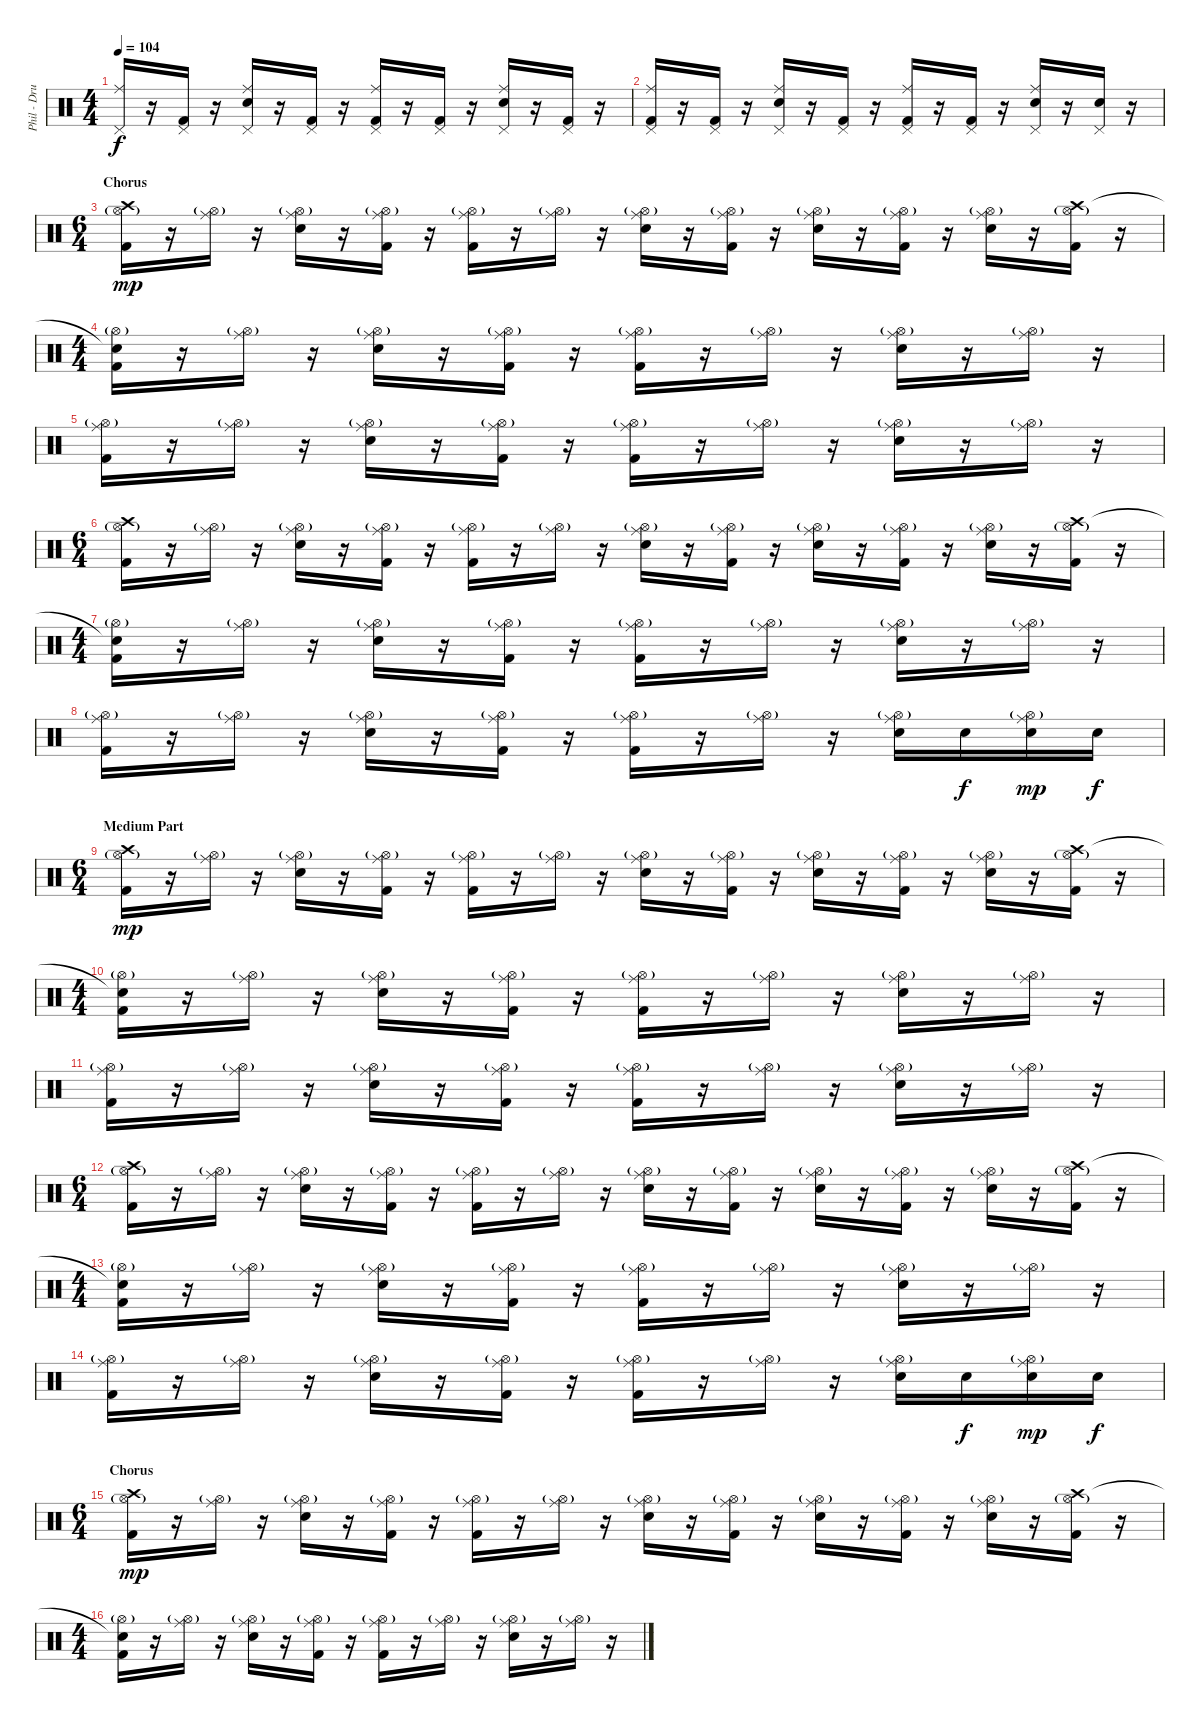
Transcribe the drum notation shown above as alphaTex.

\track ("Phil - Drums" "Phil - Dru") {instrument percussion}
\staff {score}
\articulation defaults
\ts (4 4)
\tempo 104
\clef neutral
\ks c
("Ride (middle)" "Pedal Hi-Hat (hit)").16{dy f} r.16 ("Kick (hit) 2" "Pedal Hi-Hat (hit)").16 r.16 ("Ride (middle)" "Snare (hit) 2" "Pedal Hi-Hat (hit)").16 r.16 ("Kick (hit) 2" "Pedal Hi-Hat (hit)").16 r.16 ("Ride (middle)" "Kick (hit) 2" "Pedal Hi-Hat (hit)").16 r.16 ("Kick (hit) 2" "Pedal Hi-Hat (hit)").16 r.16 ("Ride (middle)" "Snare (hit) 2" "Pedal Hi-Hat (hit)").16 r.16 ("Kick (hit) 2" "Pedal Hi-Hat (hit)").16 r.16 |
("Ride (middle)" "Kick (hit) 2" "Pedal Hi-Hat (hit)").16 r.16 ("Kick (hit) 2" "Pedal Hi-Hat (hit)").16 r.16 ("Ride (middle)" "Snare (hit) 2" "Pedal Hi-Hat (hit)").16 r.16 ("Kick (hit) 2" "Pedal Hi-Hat (hit)").16 r.16 ("Ride (middle)" "Kick (hit) 2" "Pedal Hi-Hat (hit)").16 r.16 ("Kick (hit) 2" "Pedal Hi-Hat (hit)").16 r.16 ("Ride (middle)" "Snare (hit) 2" "Pedal Hi-Hat (hit)").16 r.16 ("Snare (hit) 2" "Pedal Hi-Hat (hit)").16 r.16 |
\ts (6 4)
\section ("" "Chorus")
("Crash high (hit)" "Kick (hit) 2" "Hi-Hat (open)"{g}).16{dy mp} r.16 ("Ride (middle)" "Hi-Hat (open)"{g}).16 r.16 ("Ride (middle)" "Electric Snare (hit)" "Hi-Hat (open)"{g}).16 r.16 ("Ride (middle)" "Kick (hit) 2" "Hi-Hat (open)"{g}).16 r.16 ("Ride (middle)" "Kick (hit) 2" "Hi-Hat (open)"{g}).16 r.16 ("Ride (middle)" "Hi-Hat (open)"{g}).16 r.16 ("Ride (middle)" "Electric Snare (hit)" "Hi-Hat (open)"{g}).16 r.16 ("Ride (middle)" "Kick (hit) 2" "Hi-Hat (open)"{g}).16 r.16 ("Ride (middle)" "Electric Snare (hit)" "Hi-Hat (open)"{g}).16 r.16 ("Ride (middle)" "Kick (hit) 2" "Hi-Hat (open)"{g}).16 r.16 ("Ride (middle)" "Electric Snare (hit)" "Hi-Hat (open)"{g}).16 r.16 ("Crash high (hit)" "Kick (hit) 2" "Hi-Hat (open)"{g}).16 r.16 |
\ts (4 4)
("Snare (hit)"{t} "Kick (hit) 2" "Hi-Hat (open)"{g}).16 r.16 ("Ride (middle)" "Hi-Hat (open)"{g}).16 r.16 ("Ride (middle)" "Electric Snare (hit)" "Hi-Hat (open)"{g}).16 r.16 ("Ride (middle)" "Kick (hit) 2" "Hi-Hat (open)"{g}).16 r.16 ("Ride (middle)" "Kick (hit) 2" "Hi-Hat (open)"{g}).16 r.16 ("Ride (middle)" "Hi-Hat (open)"{g}).16 r.16 ("Ride (middle)" "Electric Snare (hit)" "Hi-Hat (open)"{g}).16 r.16 ("Ride (middle)" "Hi-Hat (open)"{g}).16 r.16 |
("Ride (middle)" "Kick (hit) 2" "Hi-Hat (open)"{g}).16 r.16 ("Ride (middle)" "Hi-Hat (open)"{g}).16 r.16 ("Ride (middle)" "Electric Snare (hit)" "Hi-Hat (open)"{g}).16 r.16 ("Ride (middle)" "Kick (hit) 2" "Hi-Hat (open)"{g}).16 r.16 ("Ride (middle)" "Kick (hit) 2" "Hi-Hat (open)"{g}).16 r.16 ("Ride (middle)" "Hi-Hat (open)"{g}).16 r.16 ("Ride (middle)" "Electric Snare (hit)" "Hi-Hat (open)"{g}).16 r.16 ("Ride (middle)" "Hi-Hat (open)"{g}).16 r.16 |
\ts (6 4)
("Crash high (hit)" "Kick (hit) 2" "Hi-Hat (open)"{g}).16 r.16 ("Ride (middle)" "Hi-Hat (open)"{g}).16 r.16 ("Ride (middle)" "Electric Snare (hit)" "Hi-Hat (open)"{g}).16 r.16 ("Ride (middle)" "Kick (hit) 2" "Hi-Hat (open)"{g}).16 r.16 ("Ride (middle)" "Kick (hit) 2" "Hi-Hat (open)"{g}).16 r.16 ("Ride (middle)" "Hi-Hat (open)"{g}).16 r.16 ("Ride (middle)" "Electric Snare (hit)" "Hi-Hat (open)"{g}).16 r.16 ("Ride (middle)" "Kick (hit) 2" "Hi-Hat (open)"{g}).16 r.16 ("Ride (middle)" "Electric Snare (hit)" "Hi-Hat (open)"{g}).16 r.16 ("Ride (middle)" "Kick (hit) 2" "Hi-Hat (open)"{g}).16 r.16 ("Ride (middle)" "Electric Snare (hit)" "Hi-Hat (open)"{g}).16 r.16 ("Crash high (hit)" "Kick (hit) 2" "Hi-Hat (open)"{g}).16 r.16 |
\ts (4 4)
("Snare (hit)"{t} "Kick (hit) 2" "Hi-Hat (open)"{g}).16 r.16 ("Ride (middle)" "Hi-Hat (open)"{g}).16 r.16 ("Ride (middle)" "Electric Snare (hit)" "Hi-Hat (open)"{g}).16 r.16 ("Ride (middle)" "Kick (hit) 2" "Hi-Hat (open)"{g}).16 r.16 ("Ride (middle)" "Kick (hit) 2" "Hi-Hat (open)"{g}).16 r.16 ("Ride (middle)" "Hi-Hat (open)"{g}).16 r.16 ("Ride (middle)" "Electric Snare (hit)" "Hi-Hat (open)"{g}).16 r.16 ("Ride (middle)" "Hi-Hat (open)"{g}).16 r.16 |
("Ride (middle)" "Kick (hit) 2" "Hi-Hat (open)"{g}).16 r.16 ("Ride (middle)" "Hi-Hat (open)"{g}).16 r.16 ("Ride (middle)" "Electric Snare (hit)" "Hi-Hat (open)"{g}).16 r.16 ("Ride (middle)" "Kick (hit) 2" "Hi-Hat (open)"{g}).16 r.16 ("Ride (middle)" "Kick (hit) 2" "Hi-Hat (open)"{g}).16 r.16 ("Ride (middle)" "Hi-Hat (open)"{g}).16 r.16 ("Ride (middle)" "Electric Snare (hit)" "Hi-Hat (open)"{g}).16 "Electric Snare (hit)".16{dy f} ("Ride (middle)" "Electric Snare (hit)" "Hi-Hat (open)"{g}).16{dy mp} "Electric Snare (hit)".16{dy f} |
\ts (6 4)
\section ("" "Medium Part")
("Crash high (hit)" "Kick (hit) 2" "Hi-Hat (open)"{g}).16{dy mp} r.16 ("Ride (middle)" "Hi-Hat (open)"{g}).16 r.16 ("Ride (middle)" "Electric Snare (hit)" "Hi-Hat (open)"{g}).16 r.16 ("Ride (middle)" "Kick (hit) 2" "Hi-Hat (open)"{g}).16 r.16 ("Ride (middle)" "Kick (hit) 2" "Hi-Hat (open)"{g}).16 r.16 ("Ride (middle)" "Hi-Hat (open)"{g}).16 r.16 ("Ride (middle)" "Electric Snare (hit)" "Hi-Hat (open)"{g}).16 r.16 ("Ride (middle)" "Kick (hit) 2" "Hi-Hat (open)"{g}).16 r.16 ("Ride (middle)" "Electric Snare (hit)" "Hi-Hat (open)"{g}).16 r.16 ("Ride (middle)" "Kick (hit) 2" "Hi-Hat (open)"{g}).16 r.16 ("Ride (middle)" "Electric Snare (hit)" "Hi-Hat (open)"{g}).16 r.16 ("Crash high (hit)" "Kick (hit) 2" "Hi-Hat (open)"{g}).16 r.16 |
\ts (4 4)
("Snare (hit)"{t} "Kick (hit) 2" "Hi-Hat (open)"{g}).16 r.16 ("Ride (middle)" "Hi-Hat (open)"{g}).16 r.16 ("Ride (middle)" "Electric Snare (hit)" "Hi-Hat (open)"{g}).16 r.16 ("Ride (middle)" "Kick (hit) 2" "Hi-Hat (open)"{g}).16 r.16 ("Ride (middle)" "Kick (hit) 2" "Hi-Hat (open)"{g}).16 r.16 ("Ride (middle)" "Hi-Hat (open)"{g}).16 r.16 ("Ride (middle)" "Electric Snare (hit)" "Hi-Hat (open)"{g}).16 r.16 ("Ride (middle)" "Hi-Hat (open)"{g}).16 r.16 |
("Ride (middle)" "Kick (hit) 2" "Hi-Hat (open)"{g}).16 r.16 ("Ride (middle)" "Hi-Hat (open)"{g}).16 r.16 ("Ride (middle)" "Electric Snare (hit)" "Hi-Hat (open)"{g}).16 r.16 ("Ride (middle)" "Kick (hit) 2" "Hi-Hat (open)"{g}).16 r.16 ("Ride (middle)" "Kick (hit) 2" "Hi-Hat (open)"{g}).16 r.16 ("Ride (middle)" "Hi-Hat (open)"{g}).16 r.16 ("Ride (middle)" "Electric Snare (hit)" "Hi-Hat (open)"{g}).16 r.16 ("Ride (middle)" "Hi-Hat (open)"{g}).16 r.16 |
\ts (6 4)
("Crash high (hit)" "Kick (hit) 2" "Hi-Hat (open)"{g}).16 r.16 ("Ride (middle)" "Hi-Hat (open)"{g}).16 r.16 ("Ride (middle)" "Electric Snare (hit)" "Hi-Hat (open)"{g}).16 r.16 ("Ride (middle)" "Kick (hit) 2" "Hi-Hat (open)"{g}).16 r.16 ("Ride (middle)" "Kick (hit) 2" "Hi-Hat (open)"{g}).16 r.16 ("Ride (middle)" "Hi-Hat (open)"{g}).16 r.16 ("Ride (middle)" "Electric Snare (hit)" "Hi-Hat (open)"{g}).16 r.16 ("Ride (middle)" "Kick (hit) 2" "Hi-Hat (open)"{g}).16 r.16 ("Ride (middle)" "Electric Snare (hit)" "Hi-Hat (open)"{g}).16 r.16 ("Ride (middle)" "Kick (hit) 2" "Hi-Hat (open)"{g}).16 r.16 ("Ride (middle)" "Electric Snare (hit)" "Hi-Hat (open)"{g}).16 r.16 ("Crash high (hit)" "Kick (hit) 2" "Hi-Hat (open)"{g}).16 r.16 |
\ts (4 4)
("Snare (hit)"{t} "Kick (hit) 2" "Hi-Hat (open)"{g}).16 r.16 ("Ride (middle)" "Hi-Hat (open)"{g}).16 r.16 ("Ride (middle)" "Electric Snare (hit)" "Hi-Hat (open)"{g}).16 r.16 ("Ride (middle)" "Kick (hit) 2" "Hi-Hat (open)"{g}).16 r.16 ("Ride (middle)" "Kick (hit) 2" "Hi-Hat (open)"{g}).16 r.16 ("Ride (middle)" "Hi-Hat (open)"{g}).16 r.16 ("Ride (middle)" "Electric Snare (hit)" "Hi-Hat (open)"{g}).16 r.16 ("Ride (middle)" "Hi-Hat (open)"{g}).16 r.16 |
("Ride (middle)" "Kick (hit) 2" "Hi-Hat (open)"{g}).16 r.16 ("Ride (middle)" "Hi-Hat (open)"{g}).16 r.16 ("Ride (middle)" "Electric Snare (hit)" "Hi-Hat (open)"{g}).16 r.16 ("Ride (middle)" "Kick (hit) 2" "Hi-Hat (open)"{g}).16 r.16 ("Ride (middle)" "Kick (hit) 2" "Hi-Hat (open)"{g}).16 r.16 ("Ride (middle)" "Hi-Hat (open)"{g}).16 r.16 ("Ride (middle)" "Electric Snare (hit)" "Hi-Hat (open)"{g}).16 "Electric Snare (hit)".16{dy f} ("Ride (middle)" "Electric Snare (hit)" "Hi-Hat (open)"{g}).16{dy mp} "Electric Snare (hit)".16{dy f} |
\ts (6 4)
\section ("" "Chorus")
("Crash high (hit)" "Kick (hit) 2" "Hi-Hat (open)"{g}).16{dy mp} r.16 ("Ride (middle)" "Hi-Hat (open)"{g}).16 r.16 ("Ride (middle)" "Electric Snare (hit)" "Hi-Hat (open)"{g}).16 r.16 ("Ride (middle)" "Kick (hit) 2" "Hi-Hat (open)"{g}).16 r.16 ("Ride (middle)" "Kick (hit) 2" "Hi-Hat (open)"{g}).16 r.16 ("Ride (middle)" "Hi-Hat (open)"{g}).16 r.16 ("Ride (middle)" "Electric Snare (hit)" "Hi-Hat (open)"{g}).16 r.16 ("Ride (middle)" "Kick (hit) 2" "Hi-Hat (open)"{g}).16 r.16 ("Ride (middle)" "Electric Snare (hit)" "Hi-Hat (open)"{g}).16 r.16 ("Ride (middle)" "Kick (hit) 2" "Hi-Hat (open)"{g}).16 r.16 ("Ride (middle)" "Electric Snare (hit)" "Hi-Hat (open)"{g}).16 r.16 ("Crash high (hit)" "Kick (hit) 2" "Hi-Hat (open)"{g}).16 r.16 |
\ts (4 4)
("Snare (hit)"{t} "Kick (hit) 2" "Hi-Hat (open)"{g}).16 r.16 ("Ride (middle)" "Hi-Hat (open)"{g}).16 r.16 ("Ride (middle)" "Electric Snare (hit)" "Hi-Hat (open)"{g}).16 r.16 ("Ride (middle)" "Kick (hit) 2" "Hi-Hat (open)"{g}).16 r.16 ("Ride (middle)" "Kick (hit) 2" "Hi-Hat (open)"{g}).16 r.16 ("Ride (middle)" "Hi-Hat (open)"{g}).16 r.16 ("Ride (middle)" "Electric Snare (hit)" "Hi-Hat (open)"{g}).16 r.16 ("Ride (middle)" "Hi-Hat (open)"{g}).16 r.16
